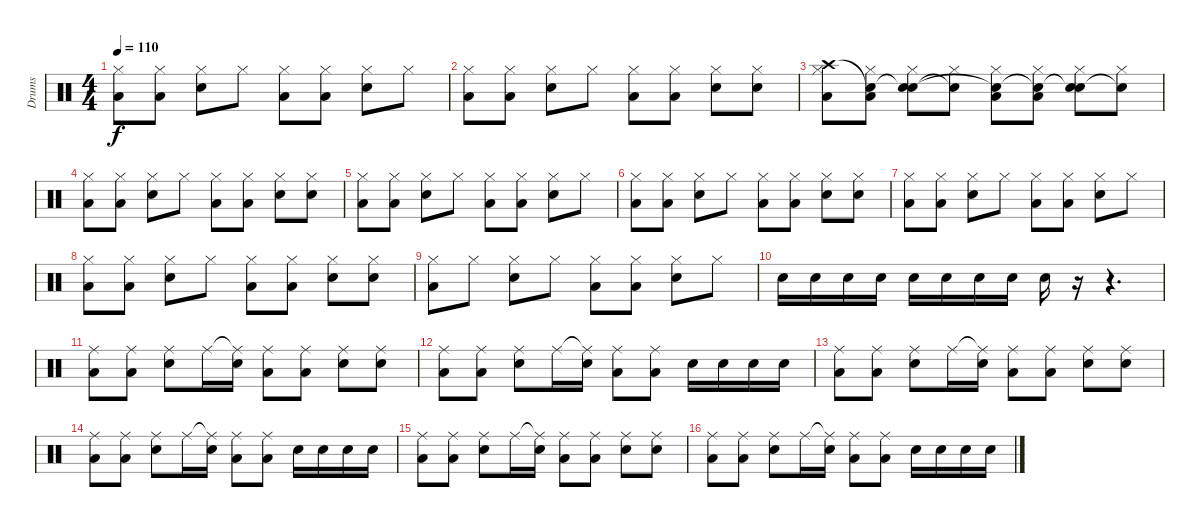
\track ("Drums" "Drums") {instrument percussion}
\staff {score}
\articulation defaults
\ts (4 4)
\tempo 110
\clef neutral
\ks c
("Hi-Hat (closed)" "Low Floor Tom (hit)").8{dy f} ("Hi-Hat (closed)" "Low Floor Tom (hit)").8 ("Hi-Hat (closed)" "Snare (hit) 2").8 "Hi-Hat (closed)".8 ("Hi-Hat (closed)" "Low Floor Tom (hit)").8 ("Hi-Hat (closed)" "Low Floor Tom (hit)").8 ("Hi-Hat (closed)" "Snare (hit) 2").8 "Hi-Hat (closed)".8 |
("Hi-Hat (closed)" "Low Floor Tom (hit)").8 ("Hi-Hat (closed)" "Low Floor Tom (hit)").8 ("Hi-Hat (closed)" "Snare (hit) 2").8 "Hi-Hat (closed)".8 ("Hi-Hat (closed)" "Low Floor Tom (hit)").8 ("Hi-Hat (closed)" "Low Floor Tom (hit)").8 ("Hi-Hat (closed)" "Snare (hit) 2").8 ("Hi-Hat (closed)" "Snare (hit) 2").8 |
("Hi-Hat (closed)" "Low Floor Tom (hit)" "Crash high (hit)").8 ("Hi-Hat (closed)" "Low Floor Tom (hit)" "Snare (hit)"{t}).8 ("Hi-Hat (closed)" "Snare (hit) 2" "Snare (hit)"{t}).8 ("Hi-Hat (closed)" "Snare (hit)"{t}).8 ("Hi-Hat (closed)" "Low Floor Tom (hit)" "Snare (hit)"{t}).8 ("Hi-Hat (closed)" "Low Floor Tom (hit)" "Snare (hit)"{t}).8 ("Hi-Hat (closed)" "Snare (hit) 2" "Snare (hit)"{t}).8 ("Hi-Hat (closed)" "Snare (hit)"{t}).8 |
("Hi-Hat (closed)" "Low Floor Tom (hit)").8 ("Hi-Hat (closed)" "Low Floor Tom (hit)").8 ("Hi-Hat (closed)" "Snare (hit) 2").8 "Hi-Hat (closed)".8 ("Hi-Hat (closed)" "Low Floor Tom (hit)").8 ("Hi-Hat (closed)" "Low Floor Tom (hit)").8 ("Hi-Hat (closed)" "Snare (hit) 2").8 ("Hi-Hat (closed)" "Snare (hit) 2").8 |
("Hi-Hat (closed)" "Low Floor Tom (hit)").8 ("Hi-Hat (closed)" "Low Floor Tom (hit)").8 ("Hi-Hat (closed)" "Snare (hit) 2").8 "Hi-Hat (closed)".8 ("Hi-Hat (closed)" "Low Floor Tom (hit)").8 ("Hi-Hat (closed)" "Low Floor Tom (hit)").8 ("Hi-Hat (closed)" "Snare (hit) 2").8 "Hi-Hat (closed)".8 |
("Hi-Hat (closed)" "Low Floor Tom (hit)").8 ("Hi-Hat (closed)" "Low Floor Tom (hit)").8 ("Hi-Hat (closed)" "Snare (hit) 2").8 "Hi-Hat (closed)".8 ("Hi-Hat (closed)" "Low Floor Tom (hit)").8 ("Hi-Hat (closed)" "Low Floor Tom (hit)").8 ("Hi-Hat (closed)" "Snare (hit) 2").8 ("Hi-Hat (closed)" "Snare (hit) 2").8 |
("Hi-Hat (closed)" "Low Floor Tom (hit)").8 ("Hi-Hat (closed)" "Low Floor Tom (hit)").8 ("Hi-Hat (closed)" "Snare (hit) 2").8 "Hi-Hat (closed)".8 ("Hi-Hat (closed)" "Low Floor Tom (hit)").8 ("Hi-Hat (closed)" "Low Floor Tom (hit)").8 ("Hi-Hat (closed)" "Snare (hit) 2").8 "Hi-Hat (closed)".8 |
("Hi-Hat (closed)" "Low Floor Tom (hit)").8 ("Hi-Hat (closed)" "Low Floor Tom (hit)").8 ("Hi-Hat (closed)" "Snare (hit) 2").8 "Hi-Hat (closed)".8 ("Hi-Hat (closed)" "Low Floor Tom (hit)").8 ("Hi-Hat (closed)" "Low Floor Tom (hit)").8 ("Hi-Hat (closed)" "Snare (hit) 2").8 ("Hi-Hat (closed)" "Snare (hit) 2").8 |
("Hi-Hat (closed)" "Low Floor Tom (hit)").8 "Hi-Hat (closed)".8 ("Hi-Hat (closed)" "Snare (hit) 2").8 "Hi-Hat (closed)".8 ("Hi-Hat (closed)" "Low Floor Tom (hit)").8 ("Hi-Hat (closed)" "Low Floor Tom (hit)").8 ("Hi-Hat (closed)" "Snare (hit) 2").8 "Hi-Hat (closed)".8 |
"Snare (hit) 2".16 "Snare (hit) 2".16 "Snare (hit) 2".16 "Snare (hit) 2".16 "Snare (hit) 2".16 "Snare (hit) 2".16 "Snare (hit) 2".16 "Snare (hit) 2".16 "Snare (hit) 2".16 r.16 r.4{d} |
("Ride (middle)" "Low Floor Tom (hit)").8 ("Ride (middle)" "Low Floor Tom (hit)").8 ("Ride (middle)" "Snare (hit) 2").8 "Ride (middle)".16 ("Ride (middle)"{t} "Snare (hit) 2").16 ("Ride (middle)" "Low Floor Tom (hit)").8 ("Ride (middle)" "Low Floor Tom (hit)").8 ("Ride (middle)" "Snare (hit) 2").8 ("Ride (middle)" "Snare (hit) 2").8 |
("Ride (middle)" "Low Floor Tom (hit)").8 ("Ride (middle)" "Low Floor Tom (hit)").8 ("Ride (middle)" "Snare (hit) 2").8 "Ride (middle)".16 ("Ride (middle)"{t} "Snare (hit) 2").16 ("Ride (middle)" "Low Floor Tom (hit)").8 ("Ride (middle)" "Low Floor Tom (hit)").8 "Snare (hit) 2".16 "Snare (hit) 2".16 "Snare (hit) 2".16 "Snare (hit) 2".16 |
("Ride (middle)" "Low Floor Tom (hit)").8 ("Ride (middle)" "Low Floor Tom (hit)").8 ("Ride (middle)" "Snare (hit) 2").8 "Ride (middle)".16 ("Ride (middle)"{t} "Snare (hit) 2").16 ("Ride (middle)" "Low Floor Tom (hit)").8 ("Ride (middle)" "Low Floor Tom (hit)").8 ("Ride (middle)" "Snare (hit) 2").8 ("Ride (middle)" "Snare (hit) 2").8 |
("Ride (middle)" "Low Floor Tom (hit)").8 ("Ride (middle)" "Low Floor Tom (hit)").8 ("Ride (middle)" "Snare (hit) 2").8 "Ride (middle)".16 ("Ride (middle)"{t} "Snare (hit) 2").16 ("Ride (middle)" "Low Floor Tom (hit)").8 ("Ride (middle)" "Low Floor Tom (hit)").8 "Snare (hit) 2".16 "Snare (hit) 2".16 "Snare (hit) 2".16 "Snare (hit) 2".16 |
("Ride (middle)" "Low Floor Tom (hit)").8 ("Ride (middle)" "Low Floor Tom (hit)").8 ("Ride (middle)" "Snare (hit) 2").8 "Ride (middle)".16 ("Ride (middle)"{t} "Snare (hit) 2").16 ("Ride (middle)" "Low Floor Tom (hit)").8 ("Ride (middle)" "Low Floor Tom (hit)").8 ("Ride (middle)" "Snare (hit) 2").8 ("Ride (middle)" "Snare (hit) 2").8 |
("Ride (middle)" "Low Floor Tom (hit)").8 ("Ride (middle)" "Low Floor Tom (hit)").8 ("Ride (middle)" "Snare (hit) 2").8 "Ride (middle)".16 ("Ride (middle)"{t} "Snare (hit) 2").16 ("Ride (middle)" "Low Floor Tom (hit)").8 ("Ride (middle)" "Low Floor Tom (hit)").8 "Snare (hit) 2".16 "Snare (hit) 2".16 "Snare (hit) 2".16 "Snare (hit) 2".16
